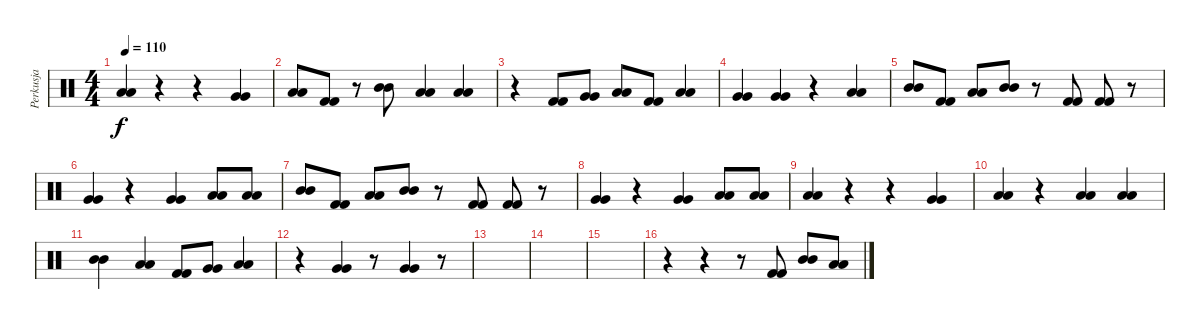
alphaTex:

\track ("Perkusja" "Perkusja") {instrument percussion}
\staff {score}
\articulation defaults
\ts (4 4)
\tempo 110
\clef neutral
\ks c
("Low Floor Tom (hit)" "Low Floor Tom (hit)").4{dy f} r.4 r.4 ("Very Low Tom (hit)" "Very Low Tom (hit)").4 |
("Low Tom (hit)" "Low Tom (hit)").8 ("Kick (hit) 2" "Kick (hit) 2").8 r.8 ("Mid Tom (hit)" "Mid Tom (hit)").8 ("Low Tom (hit)" "Low Tom (hit)").4 ("Low Tom (hit)" "Low Tom (hit)").4 |
r.4 ("Kick (hit) 2" "Kick (hit) 2").8 ("Very Low Tom (hit)" "Very Low Tom (hit)").8 ("Low Floor Tom (hit)" "Low Floor Tom (hit)").8 ("Kick (hit) 2" "Kick (hit) 2").8 ("Low Floor Tom (hit)" "Low Floor Tom (hit)").4 |
("Very Low Tom (hit)" "Very Low Tom (hit)").4 ("Very Low Tom (hit)" "Very Low Tom (hit)").4 r.4 ("Low Tom (hit)" "Low Tom (hit)").4 |
("Mid Tom (hit)" "Mid Tom (hit)").8 ("Kick (hit) 2" "Kick (hit) 2").8 ("Low Tom (hit)" "Low Tom (hit)").8 ("Mid Tom (hit)" "Mid Tom (hit)").8 r.8 ("Kick (hit) 2" "Kick (hit) 2").8 ("Kick (hit) 2" "Kick (hit) 2").8 r.8 |
("Very Low Tom (hit)" "Very Low Tom (hit)").4 r.4 ("Very Low Tom (hit)" "Very Low Tom (hit)").4 ("Low Floor Tom (hit)" "Low Floor Tom (hit)").8 ("Low Floor Tom (hit)" "Low Floor Tom (hit)").8 |
("Mid Tom (hit)" "Mid Tom (hit)").8 ("Kick (hit) 2" "Kick (hit) 2").8 ("Low Tom (hit)" "Low Tom (hit)").8 ("Mid Tom (hit)" "Mid Tom (hit)").8 r.8 ("Kick (hit) 2" "Kick (hit) 2").8 ("Kick (hit) 2" "Kick (hit) 2").8 r.8 |
("Very Low Tom (hit)" "Very Low Tom (hit)").4 r.4 ("Very Low Tom (hit)" "Very Low Tom (hit)").4 ("Low Floor Tom (hit)" "Low Floor Tom (hit)").8 ("Low Floor Tom (hit)" "Low Floor Tom (hit)").8 |
("Low Floor Tom (hit)" "Low Floor Tom (hit)").4 r.4 r.4 ("Very Low Tom (hit)" "Very Low Tom (hit)").4 |
("Low Tom (hit)" "Low Tom (hit)").4 r.4 ("Low Tom (hit)" "Low Tom (hit)").4 ("Low Tom (hit)" "Low Tom (hit)").4 |
("Mid Tom (hit)" "Mid Tom (hit)").4 ("Low Tom (hit)" "Low Tom (hit)").4 ("Kick (hit) 2" "Kick (hit) 2").8 ("Very Low Tom (hit)" "Very Low Tom (hit)").8 ("Low Floor Tom (hit)" "Low Floor Tom (hit)").4 |
r.4 ("Very Low Tom (hit)" "Very Low Tom (hit)").4 r.8 ("Very Low Tom (hit)" "Very Low Tom (hit)").4 r.8 |
|
|
|
r.4 r.4 r.8 ("Kick (hit) 2" "Kick (hit) 2").8 ("Mid Tom (hit)" "Mid Tom (hit)").8 ("Low Tom (hit)" "Low Tom (hit)").8
